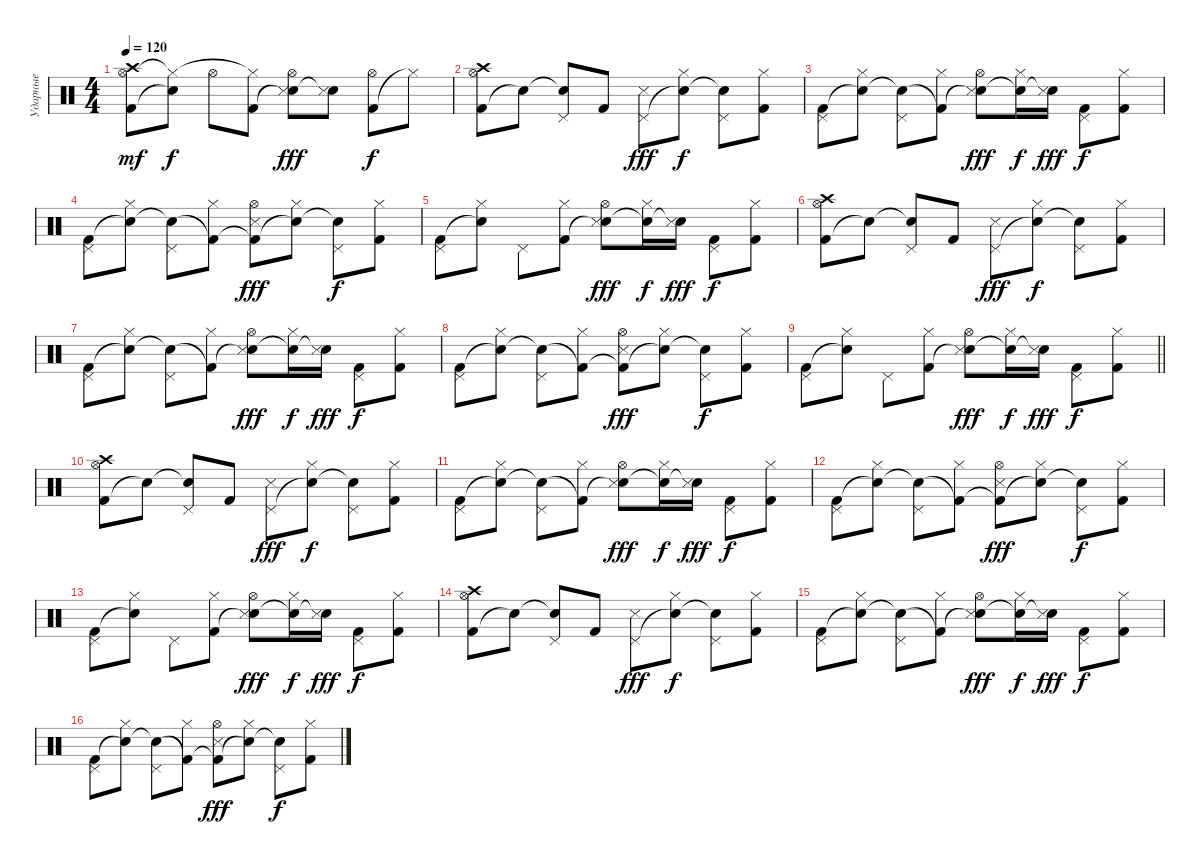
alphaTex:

\track ("Ударные" "Ударные") {instrument percussion}
\staff {score}
\articulation defaults
\ts (4 4)
\tempo 120
\clef neutral
\ks c
("Kick (hit) 2" "Hi-Hat (open)" "Crash high (hit)").8{dy mf} ("Snare (hit)"{t} "Hi-Hat (closed)"{t}).8{dy f} "Hi-Hat (open)".8 ("Kick (hit) 2" "Hi-Hat (closed)"{t}).8 ("Snare (hit)"{t} "Hi-Hat (open)" "Snare (side stick) 3").8{dy fff} ("Snare (hit)"{t} "Snare (side stick) 3").8 ("Kick (hit) 2" "Hi-Hat (open)").8{dy f} "Hi-Hat (closed)"{t}.8 |
("Kick (hit) 2" "Hi-Hat (open)" "Crash high (hit)").8 "Snare (hit)"{t}.8 ("Snare (hit)"{t} "Pedal Hi-Hat (hit)").8 "Kick (hit) 2".8 ("Pedal Hi-Hat (hit)" "Snare (side stick) 3").8{dy fff} ("Snare (hit)"{t} "Hi-Hat (closed)").8{dy f} ("Snare (hit)"{t} "Pedal Hi-Hat (hit)").8 ("Kick (hit) 2" "Hi-Hat (closed)").8 |
("Kick (hit) 2" "Pedal Hi-Hat (hit)").8 ("Snare (hit)"{t} "Hi-Hat (closed)").8 ("Snare (hit)"{t} "Pedal Hi-Hat (hit)").8 ("Kick (hit) 2"{t} "Hi-Hat (closed)").8 ("Snare (hit)"{t} "Hi-Hat (open)" "Snare (side stick) 3").8{dy fff} ("Snare (hit)"{t} "Hi-Hat (closed)").16{dy f} ("Snare (hit)"{t} "Snare (side stick) 3").16{dy fff} ("Kick (hit) 2" "Pedal Hi-Hat (hit)").8{dy f} ("Kick (hit) 2" "Hi-Hat (closed)").8 |
("Kick (hit) 2" "Pedal Hi-Hat (hit)").8 ("Snare (hit)"{t} "Hi-Hat (closed)").8 ("Snare (hit)"{t} "Pedal Hi-Hat (hit)").8 ("Kick (hit) 2"{t} "Hi-Hat (closed)").8 ("Kick (hit) 2"{t} "Hi-Hat (open)" "Snare (side stick) 3").8{dy fff} ("Snare (hit)"{t} "Hi-Hat (closed)").8 ("Snare (hit)"{t} "Pedal Hi-Hat (hit)").8{dy f} ("Kick (hit) 2" "Hi-Hat (closed)").8 |
("Kick (hit) 2" "Pedal Hi-Hat (hit)").8 ("Snare (hit)"{t} "Hi-Hat (closed)").8 "Pedal Hi-Hat (hit)".8 ("Kick (hit) 2" "Hi-Hat (closed)").8 ("Snare (hit)"{t} "Hi-Hat (open)" "Snare (side stick) 3").8{dy fff} ("Snare (hit)"{t} "Hi-Hat (closed)").16{dy f} ("Snare (hit)"{t} "Snare (side stick) 3").16{dy fff} ("Kick (hit) 2" "Pedal Hi-Hat (hit)").8{dy f} ("Kick (hit) 2" "Hi-Hat (closed)").8 |
("Kick (hit) 2" "Hi-Hat (open)" "Crash high (hit)").8 "Snare (hit)"{t}.8 ("Snare (hit)"{t} "Pedal Hi-Hat (hit)").8 "Kick (hit) 2".8 ("Pedal Hi-Hat (hit)" "Snare (side stick) 3").8{dy fff} ("Snare (hit)"{t} "Hi-Hat (closed)").8{dy f} ("Snare (hit)"{t} "Pedal Hi-Hat (hit)").8 ("Kick (hit) 2" "Hi-Hat (closed)").8 |
("Kick (hit) 2" "Pedal Hi-Hat (hit)").8 ("Snare (hit)"{t} "Hi-Hat (closed)").8 ("Snare (hit)"{t} "Pedal Hi-Hat (hit)").8 ("Kick (hit) 2"{t} "Hi-Hat (closed)").8 ("Snare (hit)"{t} "Hi-Hat (open)" "Snare (side stick) 3").8{dy fff} ("Snare (hit)"{t} "Hi-Hat (closed)").16{dy f} ("Snare (hit)"{t} "Snare (side stick) 3").16{dy fff} ("Kick (hit) 2" "Pedal Hi-Hat (hit)").8{dy f} ("Kick (hit) 2" "Hi-Hat (closed)").8 |
("Kick (hit) 2" "Pedal Hi-Hat (hit)").8 ("Snare (hit)"{t} "Hi-Hat (closed)").8 ("Snare (hit)"{t} "Pedal Hi-Hat (hit)").8 ("Kick (hit) 2"{t} "Hi-Hat (closed)").8 ("Kick (hit) 2"{t} "Hi-Hat (open)" "Snare (side stick) 3").8{dy fff} ("Snare (hit)"{t} "Hi-Hat (closed)").8 ("Snare (hit)"{t} "Pedal Hi-Hat (hit)").8{dy f} ("Kick (hit) 2" "Hi-Hat (closed)").8 |
\barLineRight lightlight
("Kick (hit) 2" "Pedal Hi-Hat (hit)").8 ("Snare (hit)"{t} "Hi-Hat (closed)").8 "Pedal Hi-Hat (hit)".8 ("Kick (hit) 2" "Hi-Hat (closed)").8 ("Snare (hit)"{t} "Hi-Hat (open)" "Snare (side stick) 3").8{dy fff} ("Snare (hit)"{t} "Hi-Hat (closed)").16{dy f} ("Snare (hit)"{t} "Snare (side stick) 3").16{dy fff} ("Kick (hit) 2" "Pedal Hi-Hat (hit)").8{dy f} ("Kick (hit) 2" "Hi-Hat (closed)").8 |
\section ("" " ")
("Kick (hit) 2" "Hi-Hat (open)" "Crash high (hit)").8 "Snare (hit)"{t}.8 ("Snare (hit)"{t} "Pedal Hi-Hat (hit)").8 "Kick (hit) 2".8 ("Pedal Hi-Hat (hit)" "Snare (side stick) 3").8{dy fff} ("Snare (hit)"{t} "Hi-Hat (closed)").8{dy f} ("Snare (hit)"{t} "Pedal Hi-Hat (hit)").8 ("Kick (hit) 2" "Hi-Hat (closed)").8 |
("Kick (hit) 2" "Pedal Hi-Hat (hit)").8 ("Snare (hit)"{t} "Hi-Hat (closed)").8 ("Snare (hit)"{t} "Pedal Hi-Hat (hit)").8 ("Kick (hit) 2"{t} "Hi-Hat (closed)").8 ("Snare (hit)"{t} "Hi-Hat (open)" "Snare (side stick) 3").8{dy fff} ("Snare (hit)"{t} "Hi-Hat (closed)").16{dy f} ("Snare (hit)"{t} "Snare (side stick) 3").16{dy fff} ("Kick (hit) 2" "Pedal Hi-Hat (hit)").8{dy f} ("Kick (hit) 2" "Hi-Hat (closed)").8 |
("Kick (hit) 2" "Pedal Hi-Hat (hit)").8 ("Snare (hit)"{t} "Hi-Hat (closed)").8 ("Snare (hit)"{t} "Pedal Hi-Hat (hit)").8 ("Kick (hit) 2"{t} "Hi-Hat (closed)").8 ("Kick (hit) 2"{t} "Hi-Hat (open)" "Snare (side stick) 3").8{dy fff} ("Snare (hit)"{t} "Hi-Hat (closed)").8 ("Snare (hit)"{t} "Pedal Hi-Hat (hit)").8{dy f} ("Kick (hit) 2" "Hi-Hat (closed)").8 |
("Kick (hit) 2" "Pedal Hi-Hat (hit)").8 ("Snare (hit)"{t} "Hi-Hat (closed)").8 "Pedal Hi-Hat (hit)".8 ("Kick (hit) 2" "Hi-Hat (closed)").8 ("Snare (hit)"{t} "Hi-Hat (open)" "Snare (side stick) 3").8{dy fff} ("Snare (hit)"{t} "Hi-Hat (closed)").16{dy f} ("Snare (hit)"{t} "Snare (side stick) 3").16{dy fff} ("Kick (hit) 2" "Pedal Hi-Hat (hit)").8{dy f} ("Kick (hit) 2" "Hi-Hat (closed)").8 |
("Kick (hit) 2" "Hi-Hat (open)" "Crash high (hit)").8 "Snare (hit)"{t}.8 ("Snare (hit)"{t} "Pedal Hi-Hat (hit)").8 "Kick (hit) 2".8 ("Pedal Hi-Hat (hit)" "Snare (side stick) 3").8{dy fff} ("Snare (hit)"{t} "Hi-Hat (closed)").8{dy f} ("Snare (hit)"{t} "Pedal Hi-Hat (hit)").8 ("Kick (hit) 2" "Hi-Hat (closed)").8 |
("Kick (hit) 2" "Pedal Hi-Hat (hit)").8 ("Snare (hit)"{t} "Hi-Hat (closed)").8 ("Snare (hit)"{t} "Pedal Hi-Hat (hit)").8 ("Kick (hit) 2"{t} "Hi-Hat (closed)").8 ("Snare (hit)"{t} "Hi-Hat (open)" "Snare (side stick) 3").8{dy fff} ("Snare (hit)"{t} "Hi-Hat (closed)").16{dy f} ("Snare (hit)"{t} "Snare (side stick) 3").16{dy fff} ("Kick (hit) 2" "Pedal Hi-Hat (hit)").8{dy f} ("Kick (hit) 2" "Hi-Hat (closed)").8 |
("Kick (hit) 2" "Pedal Hi-Hat (hit)").8 ("Snare (hit)"{t} "Hi-Hat (closed)").8 ("Snare (hit)"{t} "Pedal Hi-Hat (hit)").8 ("Kick (hit) 2"{t} "Hi-Hat (closed)").8 ("Kick (hit) 2"{t} "Hi-Hat (open)" "Snare (side stick) 3").8{dy fff} ("Snare (hit)"{t} "Hi-Hat (closed)").8 ("Snare (hit)"{t} "Pedal Hi-Hat (hit)").8{dy f} ("Kick (hit) 2" "Hi-Hat (closed)").8
